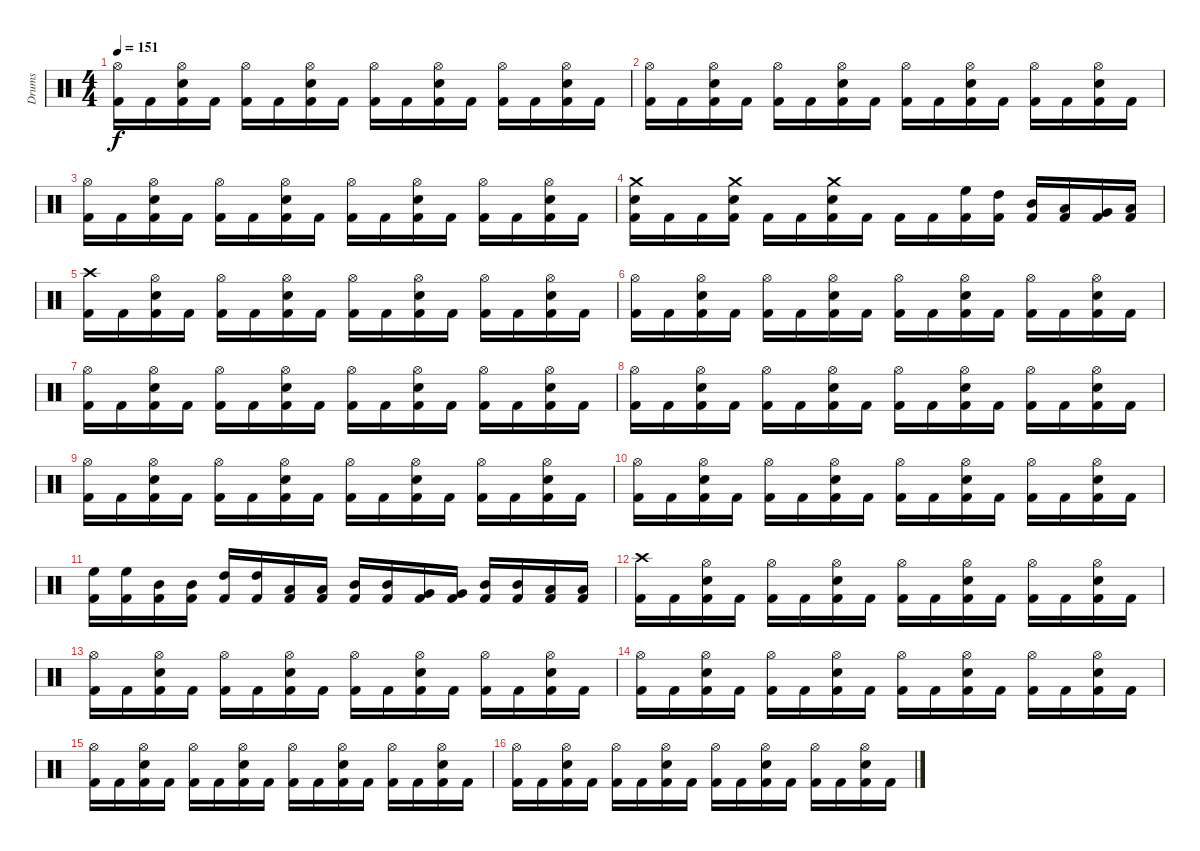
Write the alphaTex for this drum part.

\track ("Drums" "Drums") {instrument percussion}
\staff {score}
\articulation defaults
\ts (4 4)
\tempo 151
\clef neutral
\ks c
("Kick (hit) 2" "Hi-Hat (open)").16{dy f} "Kick (hit) 2".16 ("Kick (hit) 2" "Snare (hit) 2" "Hi-Hat (open)").16 "Kick (hit) 2".16 ("Kick (hit) 2" "Hi-Hat (open)").16 "Kick (hit) 2".16 ("Kick (hit) 2" "Snare (hit) 2" "Hi-Hat (open)").16 "Kick (hit) 2".16 ("Kick (hit) 2" "Hi-Hat (open)").16 "Kick (hit) 2".16 ("Kick (hit) 2" "Snare (hit) 2" "Hi-Hat (open)").16 "Kick (hit) 2".16 ("Kick (hit) 2" "Hi-Hat (open)").16 "Kick (hit) 2".16 ("Kick (hit) 2" "Snare (hit) 2" "Hi-Hat (open)").16 "Kick (hit) 2".16 |
("Kick (hit) 2" "Hi-Hat (open)").16 "Kick (hit) 2".16 ("Kick (hit) 2" "Snare (hit) 2" "Hi-Hat (open)").16 "Kick (hit) 2".16 ("Kick (hit) 2" "Hi-Hat (open)").16 "Kick (hit) 2".16 ("Kick (hit) 2" "Snare (hit) 2" "Hi-Hat (open)").16 "Kick (hit) 2".16 ("Kick (hit) 2" "Hi-Hat (open)").16 "Kick (hit) 2".16 ("Kick (hit) 2" "Snare (hit) 2" "Hi-Hat (open)").16 "Kick (hit) 2".16 ("Kick (hit) 2" "Hi-Hat (open)").16 "Kick (hit) 2".16 ("Kick (hit) 2" "Snare (hit) 2" "Hi-Hat (open)").16 "Kick (hit) 2".16 |
("Kick (hit) 2" "Hi-Hat (open)").16 "Kick (hit) 2".16 ("Kick (hit) 2" "Snare (hit) 2" "Hi-Hat (open)").16 "Kick (hit) 2".16 ("Kick (hit) 2" "Hi-Hat (open)").16 "Kick (hit) 2".16 ("Kick (hit) 2" "Snare (hit) 2" "Hi-Hat (open)").16 "Kick (hit) 2".16 ("Kick (hit) 2" "Hi-Hat (open)").16 "Kick (hit) 2".16 ("Kick (hit) 2" "Snare (hit) 2" "Hi-Hat (open)").16 "Kick (hit) 2".16 ("Kick (hit) 2" "Hi-Hat (open)").16 "Kick (hit) 2".16 ("Kick (hit) 2" "Snare (hit) 2" "Hi-Hat (open)").16 "Kick (hit) 2".16 |
("Kick (hit) 2" "Snare (hit) 2" "Crash medium (hit)").16 "Kick (hit) 2".16 "Kick (hit) 2".16 ("Kick (hit) 2" "Snare (hit) 2" "Crash medium (hit)").16 "Kick (hit) 2".16 "Kick (hit) 2".16 ("Kick (hit) 2" "Snare (hit) 2" "Crash medium (hit)").16 "Kick (hit) 2".16 "Kick (hit) 2".16 "Kick (hit) 2".16 ("Kick (hit) 2" "High Floor Tom (hit)").16 ("Kick (hit) 2" "High Tom (hit)").16 ("Kick (hit) 2" "Mid Tom (hit)").16 ("Kick (hit) 2" "Low Tom (hit)").16 ("Kick (hit) 2" "Very Low Tom (hit)").16 ("Kick (hit) 2" "Low Floor Tom (hit)").16 |
\section ("" "")
("Kick (hit) 2" "Crash high (hit)").16 "Kick (hit) 2".16 ("Kick (hit) 2" "Snare (hit) 2" "Hi-Hat (open)").16 "Kick (hit) 2".16 ("Kick (hit) 2" "Hi-Hat (open)").16 "Kick (hit) 2".16 ("Kick (hit) 2" "Snare (hit) 2" "Hi-Hat (open)").16 "Kick (hit) 2".16 ("Kick (hit) 2" "Hi-Hat (open)").16 "Kick (hit) 2".16 ("Kick (hit) 2" "Snare (hit) 2" "Hi-Hat (open)").16 "Kick (hit) 2".16 ("Kick (hit) 2" "Hi-Hat (open)").16 "Kick (hit) 2".16 ("Kick (hit) 2" "Snare (hit) 2" "Hi-Hat (open)").16 "Kick (hit) 2".16 |
("Kick (hit) 2" "Hi-Hat (open)").16 "Kick (hit) 2".16 ("Kick (hit) 2" "Snare (hit) 2" "Hi-Hat (open)").16 "Kick (hit) 2".16 ("Kick (hit) 2" "Hi-Hat (open)").16 "Kick (hit) 2".16 ("Kick (hit) 2" "Snare (hit) 2" "Hi-Hat (open)").16 "Kick (hit) 2".16 ("Kick (hit) 2" "Hi-Hat (open)").16 "Kick (hit) 2".16 ("Kick (hit) 2" "Snare (hit) 2" "Hi-Hat (open)").16 "Kick (hit) 2".16 ("Kick (hit) 2" "Hi-Hat (open)").16 "Kick (hit) 2".16 ("Kick (hit) 2" "Snare (hit) 2" "Hi-Hat (open)").16 "Kick (hit) 2".16 |
("Kick (hit) 2" "Hi-Hat (open)").16 "Kick (hit) 2".16 ("Kick (hit) 2" "Snare (hit) 2" "Hi-Hat (open)").16 "Kick (hit) 2".16 ("Kick (hit) 2" "Hi-Hat (open)").16 "Kick (hit) 2".16 ("Kick (hit) 2" "Snare (hit) 2" "Hi-Hat (open)").16 "Kick (hit) 2".16 ("Kick (hit) 2" "Hi-Hat (open)").16 "Kick (hit) 2".16 ("Kick (hit) 2" "Snare (hit) 2" "Hi-Hat (open)").16 "Kick (hit) 2".16 ("Kick (hit) 2" "Hi-Hat (open)").16 "Kick (hit) 2".16 ("Kick (hit) 2" "Snare (hit) 2" "Hi-Hat (open)").16 "Kick (hit) 2".16 |
("Kick (hit) 2" "Hi-Hat (open)").16 "Kick (hit) 2".16 ("Kick (hit) 2" "Snare (hit) 2" "Hi-Hat (open)").16 "Kick (hit) 2".16 ("Kick (hit) 2" "Hi-Hat (open)").16 "Kick (hit) 2".16 ("Kick (hit) 2" "Snare (hit) 2" "Hi-Hat (open)").16 "Kick (hit) 2".16 ("Kick (hit) 2" "Hi-Hat (open)").16 "Kick (hit) 2".16 ("Kick (hit) 2" "Snare (hit) 2" "Hi-Hat (open)").16 "Kick (hit) 2".16 ("Kick (hit) 2" "Hi-Hat (open)").16 "Kick (hit) 2".16 ("Kick (hit) 2" "Snare (hit) 2" "Hi-Hat (open)").16 "Kick (hit) 2".16 |
("Kick (hit) 2" "Hi-Hat (open)").16 "Kick (hit) 2".16 ("Kick (hit) 2" "Snare (hit) 2" "Hi-Hat (open)").16 "Kick (hit) 2".16 ("Kick (hit) 2" "Hi-Hat (open)").16 "Kick (hit) 2".16 ("Kick (hit) 2" "Snare (hit) 2" "Hi-Hat (open)").16 "Kick (hit) 2".16 ("Kick (hit) 2" "Hi-Hat (open)").16 "Kick (hit) 2".16 ("Kick (hit) 2" "Snare (hit) 2" "Hi-Hat (open)").16 "Kick (hit) 2".16 ("Kick (hit) 2" "Hi-Hat (open)").16 "Kick (hit) 2".16 ("Kick (hit) 2" "Snare (hit) 2" "Hi-Hat (open)").16 "Kick (hit) 2".16 |
("Kick (hit) 2" "Hi-Hat (open)").16 "Kick (hit) 2".16 ("Kick (hit) 2" "Snare (hit) 2" "Hi-Hat (open)").16 "Kick (hit) 2".16 ("Kick (hit) 2" "Hi-Hat (open)").16 "Kick (hit) 2".16 ("Kick (hit) 2" "Snare (hit) 2" "Hi-Hat (open)").16 "Kick (hit) 2".16 ("Kick (hit) 2" "Hi-Hat (open)").16 "Kick (hit) 2".16 ("Kick (hit) 2" "Snare (hit) 2" "Hi-Hat (open)").16 "Kick (hit) 2".16 ("Kick (hit) 2" "Hi-Hat (open)").16 "Kick (hit) 2".16 ("Kick (hit) 2" "Snare (hit) 2" "Hi-Hat (open)").16 "Kick (hit) 2".16 |
("Kick (hit) 2" "High Floor Tom (hit)").16 ("Kick (hit) 2" "High Floor Tom (hit)").16 ("Kick (hit) 2" "Mid Tom (hit)").16 ("Kick (hit) 2" "Mid Tom (hit)").16 ("Kick (hit) 2" "High Tom (hit)").16 ("Kick (hit) 2" "High Tom (hit)").16 ("Kick (hit) 2" "Low Tom (hit)").16 ("Kick (hit) 2" "Low Tom (hit)").16 ("Kick (hit) 2" "Mid Tom (hit)").16 ("Kick (hit) 2" "Mid Tom (hit)").16 ("Kick (hit) 2" "Very Low Tom (hit)").16 ("Kick (hit) 2" "Very Low Tom (hit)").16 ("Kick (hit) 2" "Mid Tom (hit)").16 ("Kick (hit) 2" "Mid Tom (hit)").16 ("Kick (hit) 2" "Low Floor Tom (hit)").16 ("Kick (hit) 2" "Low Floor Tom (hit)").16 |
\section ("" "")
("Kick (hit) 2" "Crash high (hit)").16 "Kick (hit) 2".16 ("Kick (hit) 2" "Snare (hit) 2" "Hi-Hat (open)").16 "Kick (hit) 2".16 ("Kick (hit) 2" "Hi-Hat (open)").16 "Kick (hit) 2".16 ("Kick (hit) 2" "Snare (hit) 2" "Hi-Hat (open)").16 "Kick (hit) 2".16 ("Kick (hit) 2" "Hi-Hat (open)").16 "Kick (hit) 2".16 ("Kick (hit) 2" "Snare (hit) 2" "Hi-Hat (open)").16 "Kick (hit) 2".16 ("Kick (hit) 2" "Hi-Hat (open)").16 "Kick (hit) 2".16 ("Kick (hit) 2" "Snare (hit) 2" "Hi-Hat (open)").16 "Kick (hit) 2".16 |
("Kick (hit) 2" "Hi-Hat (open)").16 "Kick (hit) 2".16 ("Kick (hit) 2" "Snare (hit) 2" "Hi-Hat (open)").16 "Kick (hit) 2".16 ("Kick (hit) 2" "Hi-Hat (open)").16 "Kick (hit) 2".16 ("Kick (hit) 2" "Snare (hit) 2" "Hi-Hat (open)").16 "Kick (hit) 2".16 ("Kick (hit) 2" "Hi-Hat (open)").16 "Kick (hit) 2".16 ("Kick (hit) 2" "Snare (hit) 2" "Hi-Hat (open)").16 "Kick (hit) 2".16 ("Kick (hit) 2" "Hi-Hat (open)").16 "Kick (hit) 2".16 ("Kick (hit) 2" "Snare (hit) 2" "Hi-Hat (open)").16 "Kick (hit) 2".16 |
("Kick (hit) 2" "Hi-Hat (open)").16 "Kick (hit) 2".16 ("Kick (hit) 2" "Snare (hit) 2" "Hi-Hat (open)").16 "Kick (hit) 2".16 ("Kick (hit) 2" "Hi-Hat (open)").16 "Kick (hit) 2".16 ("Kick (hit) 2" "Snare (hit) 2" "Hi-Hat (open)").16 "Kick (hit) 2".16 ("Kick (hit) 2" "Hi-Hat (open)").16 "Kick (hit) 2".16 ("Kick (hit) 2" "Snare (hit) 2" "Hi-Hat (open)").16 "Kick (hit) 2".16 ("Kick (hit) 2" "Hi-Hat (open)").16 "Kick (hit) 2".16 ("Kick (hit) 2" "Snare (hit) 2" "Hi-Hat (open)").16 "Kick (hit) 2".16 |
("Kick (hit) 2" "Hi-Hat (open)").16 "Kick (hit) 2".16 ("Kick (hit) 2" "Snare (hit) 2" "Hi-Hat (open)").16 "Kick (hit) 2".16 ("Kick (hit) 2" "Hi-Hat (open)").16 "Kick (hit) 2".16 ("Kick (hit) 2" "Snare (hit) 2" "Hi-Hat (open)").16 "Kick (hit) 2".16 ("Kick (hit) 2" "Hi-Hat (open)").16 "Kick (hit) 2".16 ("Kick (hit) 2" "Snare (hit) 2" "Hi-Hat (open)").16 "Kick (hit) 2".16 ("Kick (hit) 2" "Hi-Hat (open)").16 "Kick (hit) 2".16 ("Kick (hit) 2" "Snare (hit) 2" "Hi-Hat (open)").16 "Kick (hit) 2".16 |
("Kick (hit) 2" "Hi-Hat (open)").16 "Kick (hit) 2".16 ("Kick (hit) 2" "Snare (hit) 2" "Hi-Hat (open)").16 "Kick (hit) 2".16 ("Kick (hit) 2" "Hi-Hat (open)").16 "Kick (hit) 2".16 ("Kick (hit) 2" "Snare (hit) 2" "Hi-Hat (open)").16 "Kick (hit) 2".16 ("Kick (hit) 2" "Hi-Hat (open)").16 "Kick (hit) 2".16 ("Kick (hit) 2" "Snare (hit) 2" "Hi-Hat (open)").16 "Kick (hit) 2".16 ("Kick (hit) 2" "Hi-Hat (open)").16 "Kick (hit) 2".16 ("Kick (hit) 2" "Snare (hit) 2" "Hi-Hat (open)").16 "Kick (hit) 2".16
